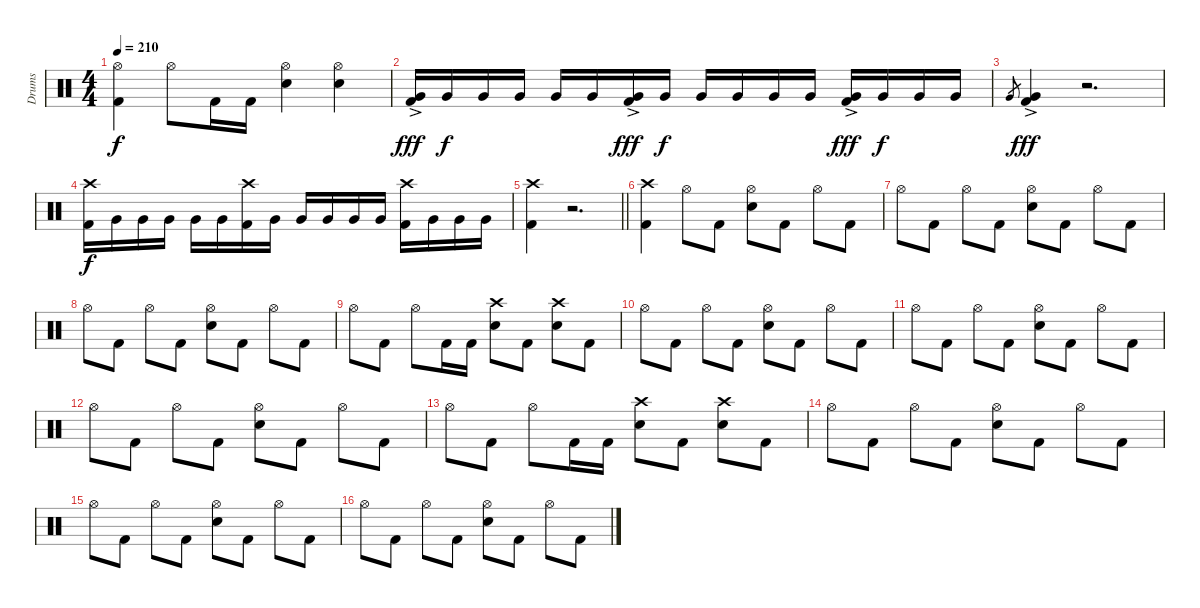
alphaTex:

\track ("Drums" "Drums") {instrument percussion}
\staff {score}
\articulation defaults
\ts (4 4)
\tempo 210
\clef neutral
\ks c
("Hi-Hat (open)" "Kick (hit) 2").4{dy f} "Hi-Hat (open)".8 "Kick (hit) 2".16 "Kick (hit) 2".16 ("Hi-Hat (open)" "Snare (hit) 2").4 ("Hi-Hat (open)" "Snare (hit) 2").4 |
("Very Low Tom (hit)"{ac} "Kick (hit) 2").16{dy fff} "Very Low Tom (hit)".16{dy f} "Very Low Tom (hit)".16 "Very Low Tom (hit)".16 "Very Low Tom (hit)".16 "Very Low Tom (hit)".16 ("Very Low Tom (hit)"{ac} "Kick (hit) 2").16{dy fff} "Very Low Tom (hit)".16{dy f} "Very Low Tom (hit)".16 "Very Low Tom (hit)".16 "Very Low Tom (hit)".16 "Very Low Tom (hit)".16 ("Very Low Tom (hit)"{ac} "Kick (hit) 2").16{dy fff} "Very Low Tom (hit)".16{dy f} "Very Low Tom (hit)".16 "Very Low Tom (hit)".16 |
"Very Low Tom (hit)".8{gr} ("Very Low Tom (hit)"{ac} "Kick (hit) 2").4{dy fff} r.2{d} |
("Crash high (hit)" "Kick (hit) 2").16{dy f} "Very Low Tom (hit)".16 "Very Low Tom (hit)".16 "Very Low Tom (hit)".16 "Very Low Tom (hit)".16 "Very Low Tom (hit)".16 ("Crash high (hit)" "Kick (hit) 2").16 "Very Low Tom (hit)".16 "Very Low Tom (hit)".16 "Very Low Tom (hit)".16 "Very Low Tom (hit)".16 "Very Low Tom (hit)".16 ("Crash high (hit)" "Kick (hit) 2").16 "Very Low Tom (hit)".16 "Very Low Tom (hit)".16 "Very Low Tom (hit)".16 |
\barLineRight lightlight
("Crash high (hit)" "Kick (hit) 2").4 r.2{d volume 0} |
("Crash high (hit)" "Kick (hit) 2").4{volume 16} "Hi-Hat (open)".8 "Kick (hit) 2".8 ("Hi-Hat (open)" "Snare (hit) 2").8 "Kick (hit) 2".8 "Hi-Hat (open)".8 "Kick (hit) 2".8 |
"Hi-Hat (open)".8 "Kick (hit) 2".8 "Hi-Hat (open)".8 "Kick (hit) 2".8 ("Hi-Hat (open)" "Snare (hit) 2").8 "Kick (hit) 2".8 "Hi-Hat (open)".8 "Kick (hit) 2".8 |
"Hi-Hat (open)".8 "Kick (hit) 2".8 "Hi-Hat (open)".8 "Kick (hit) 2".8 ("Hi-Hat (open)" "Snare (hit) 2").8 "Kick (hit) 2".8 "Hi-Hat (open)".8 "Kick (hit) 2".8 |
"Hi-Hat (open)".8 "Kick (hit) 2".8 "Hi-Hat (open)".8 "Kick (hit) 2".16 "Kick (hit) 2".16 ("Crash high (hit)" "Snare (hit) 2").8 "Kick (hit) 2".8 ("Crash high (hit)" "Snare (hit) 2").8 "Kick (hit) 2".8 |
"Hi-Hat (open)".8 "Kick (hit) 2".8 "Hi-Hat (open)".8 "Kick (hit) 2".8 ("Hi-Hat (open)" "Snare (hit) 2").8 "Kick (hit) 2".8 "Hi-Hat (open)".8 "Kick (hit) 2".8 |
"Hi-Hat (open)".8 "Kick (hit) 2".8 "Hi-Hat (open)".8 "Kick (hit) 2".8 ("Hi-Hat (open)" "Snare (hit) 2").8 "Kick (hit) 2".8 "Hi-Hat (open)".8 "Kick (hit) 2".8 |
"Hi-Hat (open)".8 "Kick (hit) 2".8 "Hi-Hat (open)".8 "Kick (hit) 2".8 ("Hi-Hat (open)" "Snare (hit) 2").8 "Kick (hit) 2".8 "Hi-Hat (open)".8 "Kick (hit) 2".8 |
"Hi-Hat (open)".8 "Kick (hit) 2".8 "Hi-Hat (open)".8 "Kick (hit) 2".16 "Kick (hit) 2".16 ("Crash high (hit)" "Snare (hit) 2").8 "Kick (hit) 2".8 ("Crash high (hit)" "Snare (hit) 2").8 "Kick (hit) 2".8 |
"Hi-Hat (open)".8 "Kick (hit) 2".8 "Hi-Hat (open)".8 "Kick (hit) 2".8 ("Hi-Hat (open)" "Snare (hit) 2").8 "Kick (hit) 2".8 "Hi-Hat (open)".8 "Kick (hit) 2".8 |
"Hi-Hat (open)".8 "Kick (hit) 2".8 "Hi-Hat (open)".8 "Kick (hit) 2".8 ("Hi-Hat (open)" "Snare (hit) 2").8 "Kick (hit) 2".8 "Hi-Hat (open)".8 "Kick (hit) 2".8 |
"Hi-Hat (open)".8 "Kick (hit) 2".8 "Hi-Hat (open)".8 "Kick (hit) 2".8 ("Hi-Hat (open)" "Snare (hit) 2").8 "Kick (hit) 2".8 "Hi-Hat (open)".8 "Kick (hit) 2".8
